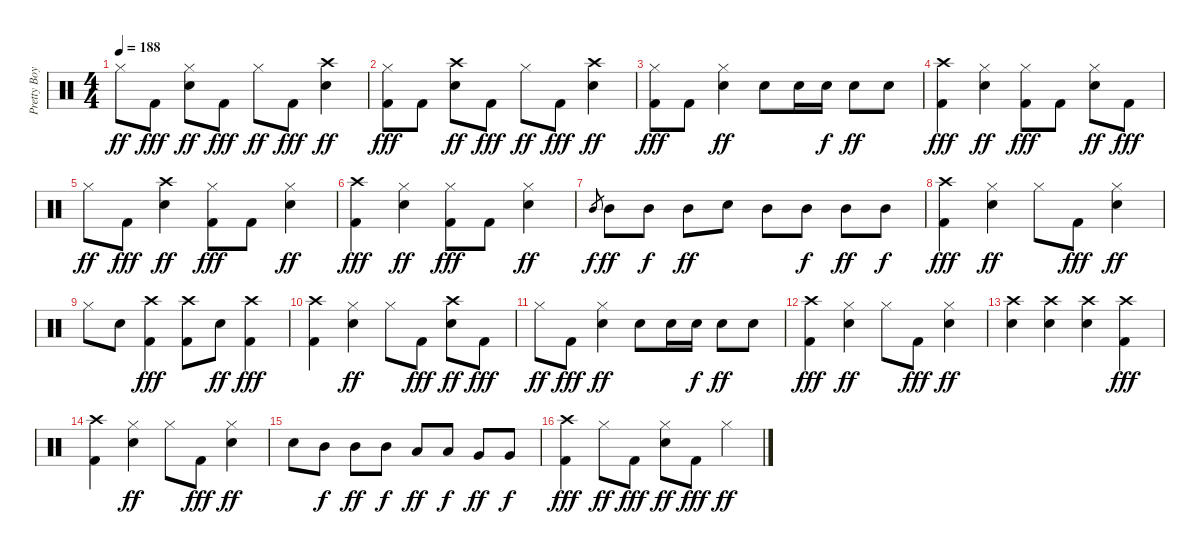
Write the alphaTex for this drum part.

\track ("Pretty Boy Geoff (Lars Drums)" "Pretty Boy") {instrument percussion}
\staff {score}
\articulation defaults
\ts (4 4)
\tempo 188
\clef neutral
\ks c "Hi-Hat (closed)".8{dy ff} "Kick (hit) 2".8{dy fff}
("Hi-Hat (closed)" "Snare (hit) 2").8{dy ff} "Kick (hit) 2".8{dy fff} "Hi-Hat (closed)".8{dy ff} "Kick (hit) 2".8{dy fff} ("Crash high (hit)" "Snare (hit) 2").4{dy ff} |
("Hi-Hat (closed)" "Kick (hit) 2").8{dy fff} "Kick (hit) 2".8 ("Crash high (hit)" "Snare (hit) 2").8{dy ff} "Kick (hit) 2".8{dy fff} "Hi-Hat (closed)".8{dy ff} "Kick (hit) 2".8{dy fff} ("Crash high (hit)" "Snare (hit) 2").4{dy ff} |
("Hi-Hat (closed)" "Kick (hit) 2").8{dy fff} "Kick (hit) 2".8 ("Hi-Hat (closed)" "Snare (hit) 2").4{dy ff} "Snare (hit) 2".8 "Snare (hit) 2".16 "Snare (hit) 2".16{dy f} "Snare (hit) 2".8{dy ff} "Snare (hit) 2".8 |
("Crash high (hit)" "Kick (hit) 2").4{dy fff} ("Hi-Hat (closed)" "Snare (hit) 2").4{dy ff} ("Hi-Hat (closed)" "Kick (hit) 2").8{dy fff} "Kick (hit) 2".8 ("Hi-Hat (closed)" "Snare (hit) 2").8{dy ff} "Kick (hit) 2".8{dy fff} |
"Hi-Hat (closed)".8{dy ff} "Kick (hit) 2".8{dy fff} ("Crash high (hit)" "Snare (hit) 2").4{dy ff} ("Hi-Hat (closed)" "Kick (hit) 2").8{dy fff} "Kick (hit) 2".8 ("Hi-Hat (closed)" "Snare (hit) 2").4{dy ff} |
("Crash high (hit)" "Kick (hit) 2").4{dy fff} ("Hi-Hat (closed)" "Snare (hit) 2").4{dy ff} ("Hi-Hat (closed)" "Kick (hit) 2").8{dy fff} "Kick (hit) 2".8 ("Hi-Hat (closed)" "Snare (hit) 2").4{dy ff} |
"Mid Tom (hit)"{sl}.8{gr dy f} "Mid Tom (hit)".8{dy ff} "Mid Tom (hit)".8{dy f} "Mid Tom (hit)".8{dy ff} "Snare (hit) 2".8 "Mid Tom (hit)".8 "Mid Tom (hit)".8{dy f} "Mid Tom (hit)".8{dy ff} "Mid Tom (hit)".8{dy f} |
("Crash high (hit)" "Kick (hit) 2").4{dy fff} ("Hi-Hat (closed)" "Snare (hit) 2").4{dy ff} "Hi-Hat (closed)".8 "Kick (hit) 2".8{dy fff} ("Hi-Hat (closed)" "Snare (hit) 2").4{dy ff} |
"Hi-Hat (closed)".8 "Snare (hit) 2".8 ("Crash high (hit)" "Kick (hit) 2").4{dy fff} ("Crash high (hit)" "Kick (hit) 2").8 "Snare (hit) 2".8{dy ff} ("Crash high (hit)" "Kick (hit) 2").4{dy fff} |
("Crash high (hit)" "Kick (hit) 2").4 ("Hi-Hat (closed)" "Snare (hit) 2").4{dy ff} "Hi-Hat (closed)".8 "Kick (hit) 2".8{dy fff} ("Crash high (hit)" "Snare (hit) 2").8{dy ff} "Kick (hit) 2".8{dy fff} |
"Hi-Hat (closed)".8{dy ff} "Kick (hit) 2".8{dy fff} ("Hi-Hat (closed)" "Snare (hit) 2").4{dy ff} "Snare (hit) 2".8 "Snare (hit) 2".16 "Snare (hit) 2".16{dy f} "Snare (hit) 2".8{dy ff} "Snare (hit) 2".8 |
("Crash high (hit)" "Kick (hit) 2").4{dy fff} ("Hi-Hat (closed)" "Snare (hit) 2").4{dy ff} "Hi-Hat (closed)".8 "Kick (hit) 2".8{dy fff} ("Hi-Hat (closed)" "Snare (hit) 2").4{dy ff} |
("Crash high (hit)" "Snare (hit) 2").4 ("Crash high (hit)" "Snare (hit) 2").4 ("Crash high (hit)" "Snare (hit) 2").4 ("Crash high (hit)" "Kick (hit) 2").4{dy fff} |
("Crash high (hit)" "Kick (hit) 2").4 ("Hi-Hat (closed)" "Snare (hit) 2").4{dy ff} "Hi-Hat (closed)".8 "Kick (hit) 2".8{dy fff} ("Hi-Hat (closed)" "Snare (hit) 2").4{dy ff} |
"Snare (hit) 2".8 "Mid Tom (hit)".8{dy f} "Mid Tom (hit)".8{dy ff} "Mid Tom (hit)".8{dy f} "Low Tom (hit)".8{dy ff} "Low Tom (hit)".8{dy f} "Very Low Tom (hit)".8{dy ff} "Very Low Tom (hit)".8{dy f} |
("Crash high (hit)" "Kick (hit) 2").4{dy fff} "Hi-Hat (closed)".8{dy ff} "Kick (hit) 2".8{dy fff} ("Hi-Hat (closed)" "Snare (hit) 2").8{dy ff} "Kick (hit) 2".8{dy fff} "Hi-Hat (closed)".4{dy ff}
